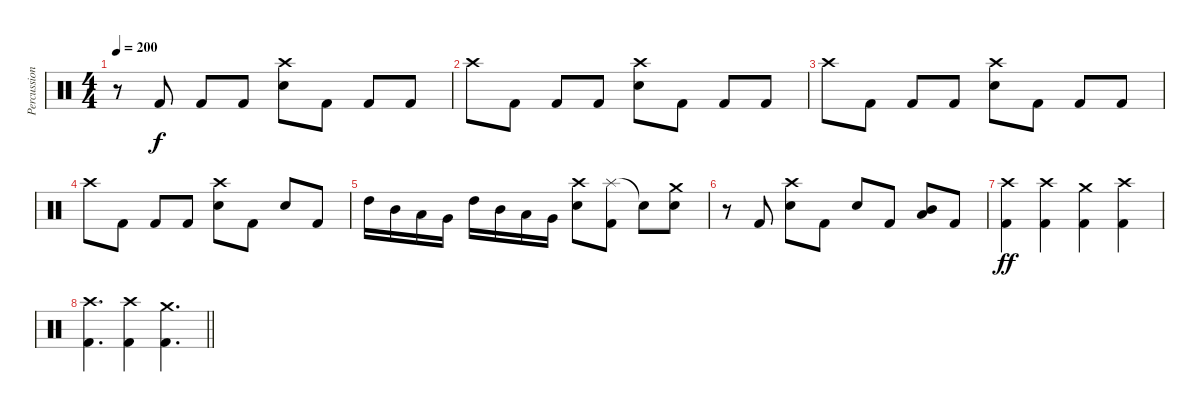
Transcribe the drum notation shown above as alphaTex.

\track ("Percussion" "Percussion") {instrument percussion}
\staff {score}
\articulation defaults
\ts (4 4)
\tempo 200
\clef neutral
\ks c
r.8{dy f} "Kick (hit) 2".8 "Kick (hit) 2".8 "Kick (hit) 2".8 ("Crash high (hit)" "Snare (hit) 2").8 "Kick (hit) 2".8 "Kick (hit) 2".8 "Kick (hit) 2".8 |
"Crash high (hit)".8 "Kick (hit) 2".8 "Kick (hit) 2".8 "Kick (hit) 2".8 ("Crash high (hit)" "Snare (hit) 2").8 "Kick (hit) 2".8 "Kick (hit) 2".8 "Kick (hit) 2".8 |
"Crash high (hit)".8 "Kick (hit) 2".8 "Kick (hit) 2".8 "Kick (hit) 2".8 ("Crash high (hit)" "Snare (hit) 2").8 "Kick (hit) 2".8 "Kick (hit) 2".8 "Kick (hit) 2".8 |
"Crash high (hit)".8 "Kick (hit) 2".8 "Kick (hit) 2".8 "Kick (hit) 2".8 ("Crash high (hit)" "Snare (hit) 2").8 "Kick (hit) 2".8 "Snare (hit) 2".8 "Kick (hit) 2".8 |
"High Tom (hit)".16 "Mid Tom (hit)".16 "Low Tom (hit)".16 "Very Low Tom (hit)".16 "High Tom (hit)".16 "Mid Tom (hit)".16 "Low Tom (hit)".16 "Very Low Tom (hit)".16 ("Crash high (hit)" "Snare (hit) 2").8 ("Splash (hit)" "Kick (hit) 2").8 "Snare (hit)"{t}.8 ("Crash medium (hit)" "Snare (hit) 2").8 |
r.8 "Kick (hit) 2".8 ("Crash high (hit)" "Snare (hit) 2").8 "Kick (hit) 2".8 "Snare (hit) 2".8 "Kick (hit) 2".8 ("Low Tom (hit)" "Mid Tom (hit)").8 "Kick (hit) 2".8 |
("Crash high (hit)" "Kick (hit) 2").4{dy ff} ("Crash high (hit)" "Kick (hit) 2").4 ("Crash medium (hit)" "Kick (hit) 2").4 ("Crash high (hit)" "Kick (hit) 2").4 |
\barLineRight lightlight
("Crash high (hit)" "Kick (hit) 2").4{d} ("Crash high (hit)" "Kick (hit) 2").4 ("Crash medium (hit)" "Kick (hit) 2").4{d}
